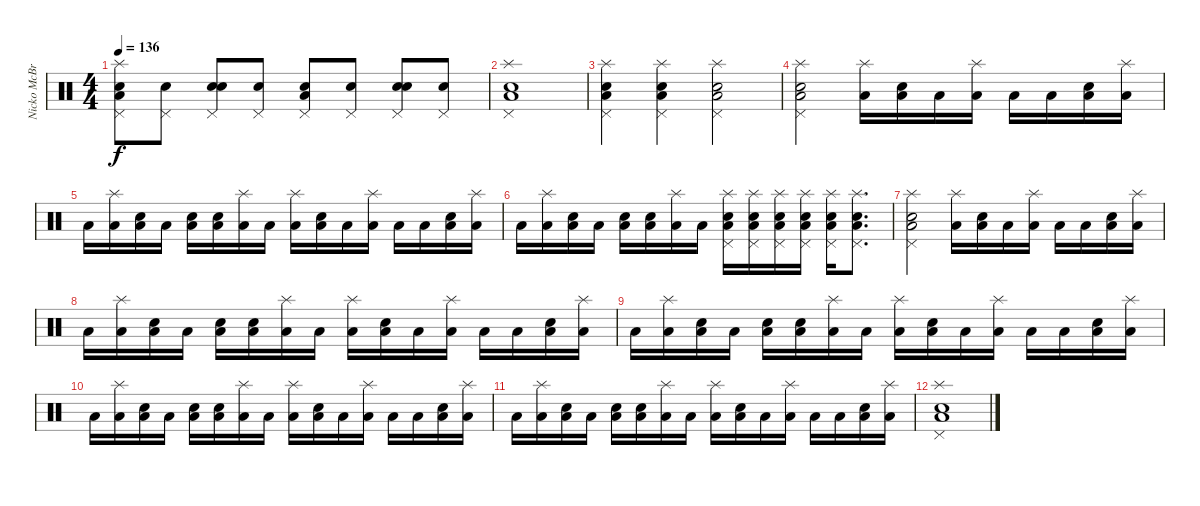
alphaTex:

\track ("Nicko McBrian" "Nicko McBr") {instrument percussion}
\staff {score}
\articulation defaults
\ts (4 4)
\tempo 136
\clef neutral
\ks c
("Snare (hit)" "Low Floor Tom (hit)" "Pedal Hi-Hat (hit)" "Splash (hit)").8{dy f} ("Snare (hit)" "Pedal Hi-Hat (hit)").8 ("Snare (hit)" "Electric Snare (hit)" "Pedal Hi-Hat (hit)").8 ("Snare (hit)" "Pedal Hi-Hat (hit)").8 ("Snare (hit)" "Low Floor Tom (hit)" "Pedal Hi-Hat (hit)").8 ("Snare (hit)" "Pedal Hi-Hat (hit)").8 ("Snare (hit)" "Electric Snare (hit)" "Pedal Hi-Hat (hit)").8 ("Snare (hit)" "Pedal Hi-Hat (hit)").8 |
("Electric Snare (hit)" "Low Floor Tom (hit)" "Pedal Hi-Hat (hit)" "Splash (hit)").1 |
("Electric Snare (hit)" "Low Floor Tom (hit)" "Pedal Hi-Hat (hit)" "Splash (hit)").4 ("Electric Snare (hit)" "Low Floor Tom (hit)" "Pedal Hi-Hat (hit)" "Splash (hit)").4 ("Electric Snare (hit)" "Low Floor Tom (hit)" "Pedal Hi-Hat (hit)" "Splash (hit)").2 |
("Electric Snare (hit)" "Low Floor Tom (hit)" "Pedal Hi-Hat (hit)" "Splash (hit)").2 ("Low Floor Tom (hit)" "Splash (hit)").16 ("Electric Snare (hit)" "Low Floor Tom (hit)").16 "Low Floor Tom (hit)".16 ("Low Floor Tom (hit)" "Splash (hit)").16 "Low Floor Tom (hit)".16 "Low Floor Tom (hit)".16 ("Electric Snare (hit)" "Low Floor Tom (hit)").16 ("Low Floor Tom (hit)" "Splash (hit)").16 |
"Low Floor Tom (hit)".16 ("Low Floor Tom (hit)" "Splash (hit)").16 ("Electric Snare (hit)" "Low Floor Tom (hit)").16 "Low Floor Tom (hit)".16 ("Electric Snare (hit)" "Low Floor Tom (hit)").16 ("Electric Snare (hit)" "Low Floor Tom (hit)").16 ("Low Floor Tom (hit)" "Splash (hit)").16 "Low Floor Tom (hit)".16 ("Low Floor Tom (hit)" "Splash (hit)").16 ("Electric Snare (hit)" "Low Floor Tom (hit)").16 "Low Floor Tom (hit)".16 ("Low Floor Tom (hit)" "Splash (hit)").16 "Low Floor Tom (hit)".16 "Low Floor Tom (hit)".16 ("Electric Snare (hit)" "Low Floor Tom (hit)").16 ("Low Floor Tom (hit)" "Splash (hit)").16 |
"Low Floor Tom (hit)".16 ("Low Floor Tom (hit)" "Splash (hit)").16 ("Electric Snare (hit)" "Low Floor Tom (hit)").16 "Low Floor Tom (hit)".16 ("Electric Snare (hit)" "Low Floor Tom (hit)").16 ("Electric Snare (hit)" "Low Floor Tom (hit)").16 ("Low Floor Tom (hit)" "Splash (hit)").16 "Low Floor Tom (hit)".16 ("Electric Snare (hit)" "Low Floor Tom (hit)" "Pedal Hi-Hat (hit)" "Splash (hit)").16 ("Electric Snare (hit)" "Low Floor Tom (hit)" "Pedal Hi-Hat (hit)" "Splash (hit)").16 ("Electric Snare (hit)" "Low Floor Tom (hit)" "Pedal Hi-Hat (hit)" "Splash (hit)").16 ("Electric Snare (hit)" "Low Floor Tom (hit)" "Pedal Hi-Hat (hit)" "Splash (hit)").16 ("Electric Snare (hit)" "Low Floor Tom (hit)" "Pedal Hi-Hat (hit)" "Splash (hit)").16 ("Electric Snare (hit)" "Low Floor Tom (hit)" "Pedal Hi-Hat (hit)" "Splash (hit)").8{d} |
("Electric Snare (hit)" "Low Floor Tom (hit)" "Pedal Hi-Hat (hit)" "Splash (hit)").2 ("Low Floor Tom (hit)" "Splash (hit)").16 ("Electric Snare (hit)" "Low Floor Tom (hit)").16 "Low Floor Tom (hit)".16 ("Low Floor Tom (hit)" "Splash (hit)").16 "Low Floor Tom (hit)".16 "Low Floor Tom (hit)".16 ("Electric Snare (hit)" "Low Floor Tom (hit)").16 ("Low Floor Tom (hit)" "Splash (hit)").16 |
"Low Floor Tom (hit)".16 ("Low Floor Tom (hit)" "Splash (hit)").16 ("Electric Snare (hit)" "Low Floor Tom (hit)").16 "Low Floor Tom (hit)".16 ("Electric Snare (hit)" "Low Floor Tom (hit)").16 ("Electric Snare (hit)" "Low Floor Tom (hit)").16 ("Low Floor Tom (hit)" "Splash (hit)").16 "Low Floor Tom (hit)".16 ("Low Floor Tom (hit)" "Splash (hit)").16 ("Electric Snare (hit)" "Low Floor Tom (hit)").16 "Low Floor Tom (hit)".16 ("Low Floor Tom (hit)" "Splash (hit)").16 "Low Floor Tom (hit)".16 "Low Floor Tom (hit)".16 ("Electric Snare (hit)" "Low Floor Tom (hit)").16 ("Low Floor Tom (hit)" "Splash (hit)").16 |
"Low Floor Tom (hit)".16 ("Low Floor Tom (hit)" "Splash (hit)").16 ("Electric Snare (hit)" "Low Floor Tom (hit)").16 "Low Floor Tom (hit)".16 ("Electric Snare (hit)" "Low Floor Tom (hit)").16 ("Electric Snare (hit)" "Low Floor Tom (hit)").16 ("Low Floor Tom (hit)" "Splash (hit)").16 "Low Floor Tom (hit)".16 ("Low Floor Tom (hit)" "Splash (hit)").16 ("Electric Snare (hit)" "Low Floor Tom (hit)").16 "Low Floor Tom (hit)".16 ("Low Floor Tom (hit)" "Splash (hit)").16 "Low Floor Tom (hit)".16 "Low Floor Tom (hit)".16 ("Electric Snare (hit)" "Low Floor Tom (hit)").16 ("Low Floor Tom (hit)" "Splash (hit)").16 |
"Low Floor Tom (hit)".16 ("Low Floor Tom (hit)" "Splash (hit)").16 ("Electric Snare (hit)" "Low Floor Tom (hit)").16 "Low Floor Tom (hit)".16 ("Electric Snare (hit)" "Low Floor Tom (hit)").16 ("Electric Snare (hit)" "Low Floor Tom (hit)").16 ("Low Floor Tom (hit)" "Splash (hit)").16 "Low Floor Tom (hit)".16 ("Low Floor Tom (hit)" "Splash (hit)").16 ("Electric Snare (hit)" "Low Floor Tom (hit)").16 "Low Floor Tom (hit)".16 ("Low Floor Tom (hit)" "Splash (hit)").16 "Low Floor Tom (hit)".16 "Low Floor Tom (hit)".16 ("Electric Snare (hit)" "Low Floor Tom (hit)").16 ("Low Floor Tom (hit)" "Splash (hit)").16 |
"Low Floor Tom (hit)".16 ("Low Floor Tom (hit)" "Splash (hit)").16 ("Electric Snare (hit)" "Low Floor Tom (hit)").16 "Low Floor Tom (hit)".16 ("Electric Snare (hit)" "Low Floor Tom (hit)").16 ("Electric Snare (hit)" "Low Floor Tom (hit)").16 ("Low Floor Tom (hit)" "Splash (hit)").16 "Low Floor Tom (hit)".16 ("Low Floor Tom (hit)" "Splash (hit)").16 ("Electric Snare (hit)" "Low Floor Tom (hit)").16 "Low Floor Tom (hit)".16 ("Low Floor Tom (hit)" "Splash (hit)").16 "Low Floor Tom (hit)".16 "Low Floor Tom (hit)".16 ("Electric Snare (hit)" "Low Floor Tom (hit)").16 ("Low Floor Tom (hit)" "Splash (hit)").16 |
("Electric Snare (hit)" "Low Floor Tom (hit)" "Pedal Hi-Hat (hit)" "Splash (hit)").1
